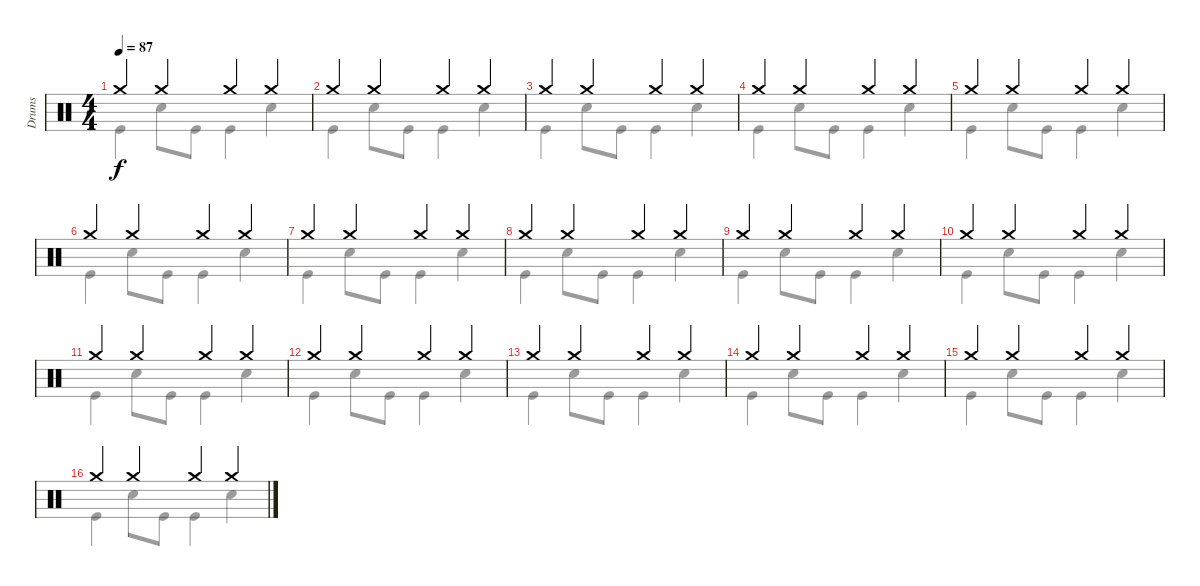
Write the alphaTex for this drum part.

\track ("Drums" "Drums") {instrument percussion}
\staff {score}
\articulation defaults
\voice
\ts (4 4)
\tempo 87
\clef neutral
\ks c "Crash medium (hit)".4{dy f} "Crash medium (hit)".4 "Crash medium (hit)".4 "Crash medium (hit)".4
|
"Crash medium (hit)".4 "Crash medium (hit)".4 "Crash medium (hit)".4 "Crash medium (hit)".4 |
"Crash medium (hit)".4 "Crash medium (hit)".4 "Crash medium (hit)".4 "Crash medium (hit)".4 |
"Crash medium (hit)".4 "Crash medium (hit)".4 "Crash medium (hit)".4 "Crash medium (hit)".4 |
"Crash medium (hit)".4 "Crash medium (hit)".4 "Crash medium (hit)".4 "Crash medium (hit)".4 |
"Crash medium (hit)".4 "Crash medium (hit)".4 "Crash medium (hit)".4 "Crash medium (hit)".4 |
"Crash medium (hit)".4 "Crash medium (hit)".4 "Crash medium (hit)".4 "Crash medium (hit)".4 |
"Crash medium (hit)".4 "Crash medium (hit)".4 "Crash medium (hit)".4 "Crash medium (hit)".4 |
"Crash medium (hit)".4 "Crash medium (hit)".4 "Crash medium (hit)".4 "Crash medium (hit)".4 |
"Crash medium (hit)".4{volume 8} "Crash medium (hit)".4 "Crash medium (hit)".4 "Crash medium (hit)".4 |
"Crash medium (hit)".4 "Crash medium (hit)".4 "Crash medium (hit)".4 "Crash medium (hit)".4 |
"Crash medium (hit)".4 "Crash medium (hit)".4 "Crash medium (hit)".4 "Crash medium (hit)".4 |
"Crash medium (hit)".4 "Crash medium (hit)".4 "Crash medium (hit)".4 "Crash medium (hit)".4 |
"Crash medium (hit)".4 "Crash medium (hit)".4 "Crash medium (hit)".4 "Crash medium (hit)".4 |
"Crash medium (hit)".4 "Crash medium (hit)".4 "Crash medium (hit)".4 "Crash medium (hit)".4 |
"Crash medium (hit)".4 "Crash medium (hit)".4 "Crash medium (hit)".4 "Crash medium (hit)".4
\voice
\clef neutral
\ottava regular
\simile none
\ks c "Kick (hit)".4{dy f} "Snare (hit) 2".8 "Kick (hit)".8 "Kick (hit)".4 "Snare (hit) 2".4
|
"Kick (hit)".4 "Snare (hit) 2".8 "Kick (hit)".8 "Kick (hit)".4 "Snare (hit) 2".4 |
"Kick (hit)".4 "Snare (hit) 2".8 "Kick (hit)".8 "Kick (hit)".4 "Snare (hit) 2".4 |
"Kick (hit)".4 "Snare (hit) 2".8 "Kick (hit)".8 "Kick (hit)".4 "Snare (hit) 2".4 |
"Kick (hit)".4 "Snare (hit) 2".8 "Kick (hit)".8 "Kick (hit)".4 "Snare (hit) 2".4 |
"Kick (hit)".4 "Snare (hit) 2".8 "Kick (hit)".8 "Kick (hit)".4 "Snare (hit) 2".4 |
"Kick (hit)".4 "Snare (hit) 2".8 "Kick (hit)".8 "Kick (hit)".4 "Snare (hit) 2".4 |
"Kick (hit)".4 "Snare (hit) 2".8 "Kick (hit)".8 "Kick (hit)".4 "Snare (hit) 2".4 |
"Kick (hit)".4 "Snare (hit) 2".8 "Kick (hit)".8 "Kick (hit)".4 "Snare (hit) 2".4 |
"Kick (hit)".4 "Snare (hit) 2".8 "Kick (hit)".8 "Kick (hit)".4 "Snare (hit) 2".4 |
"Kick (hit)".4 "Snare (hit) 2".8 "Kick (hit)".8 "Kick (hit)".4 "Snare (hit) 2".4 |
"Kick (hit)".4 "Snare (hit) 2".8 "Kick (hit)".8 "Kick (hit)".4 "Snare (hit) 2".4 |
"Kick (hit)".4 "Snare (hit) 2".8 "Kick (hit)".8 "Kick (hit)".4 "Snare (hit) 2".4 |
"Kick (hit)".4 "Snare (hit) 2".8 "Kick (hit)".8 "Kick (hit)".4 "Snare (hit) 2".4 |
"Kick (hit)".4 "Snare (hit) 2".8 "Kick (hit)".8 "Kick (hit)".4 "Snare (hit) 2".4 |
"Kick (hit)".4 "Snare (hit) 2".8 "Kick (hit)".8 "Kick (hit)".4 "Snare (hit) 2".4
